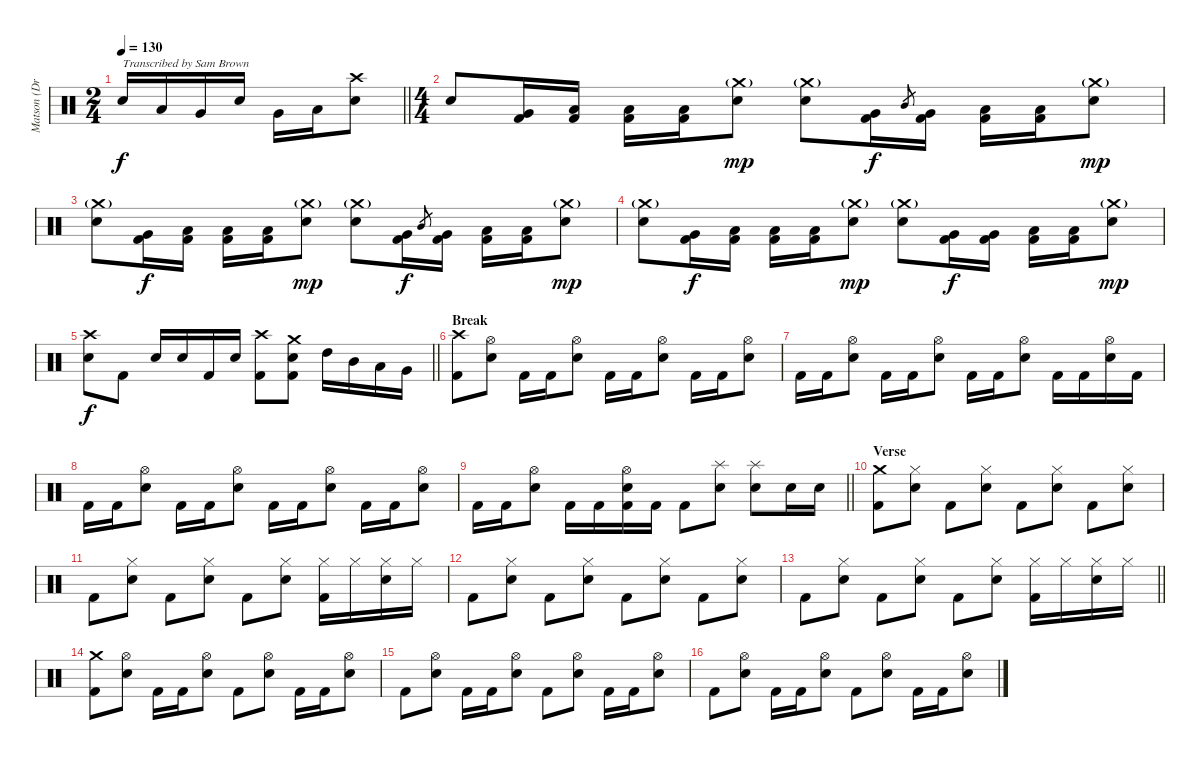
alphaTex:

\track ("Matson (Drums)" "Matson (Dr") {instrument percussion}
\staff {score}
\articulation defaults
\ts (2 4)
\tempo 130
\clef neutral
\barLineRight lightlight
\ks c "Snare (hit) 2".16{txt "Transcribed by Sam Brown" dy f} "Low Tom (hit)".16 "Very Low Tom (hit)".16 "Snare (hit) 2".16 "Very Low Tom (hit)".16 "Low Floor Tom (hit)".16
("Snare (hit) 2" "Crash high (hit)").8 |
\ts (4 4)
\section ("" "")
"Snare (hit) 2".8 ("Kick (hit) 2" "Very Low Tom (hit)").16 ("Kick (hit) 2" "Low Tom (hit)").16 ("Kick (hit) 2" "Low Floor Tom (hit)").16 ("Kick (hit) 2" "Low Floor Tom (hit)").16 ("Snare (hit) 2" "Crash medium (hit)"{g}).8{dy mp} ("Snare (hit) 2" "Crash medium (hit)"{g}).8 ("Kick (hit) 2" "Very Low Tom (hit)").16{dy f} "Mid Tom (hit)".8{gr} ("Kick (hit) 2" "Very Low Tom (hit)").16 ("Kick (hit) 2" "Low Floor Tom (hit)").16 ("Kick (hit) 2" "Low Floor Tom (hit)").16 ("Snare (hit) 2" "Crash medium (hit)"{g}).8{dy mp} |
("Snare (hit) 2" "Crash medium (hit)"{g}).8 ("Kick (hit) 2" "Very Low Tom (hit)").16{dy f} ("Kick (hit) 2" "Low Tom (hit)").16 ("Kick (hit) 2" "Low Floor Tom (hit)").16 ("Kick (hit) 2" "Low Floor Tom (hit)").16 ("Snare (hit) 2" "Crash medium (hit)"{g}).8{dy mp} ("Snare (hit) 2" "Crash medium (hit)"{g}).8 ("Kick (hit) 2" "Very Low Tom (hit)").16{dy f} "Mid Tom (hit)".8{gr} ("Kick (hit) 2" "Very Low Tom (hit)").16 ("Kick (hit) 2" "Low Floor Tom (hit)").16 ("Kick (hit) 2" "Low Floor Tom (hit)").16 ("Snare (hit) 2" "Crash medium (hit)"{g}).8{dy mp} |
("Snare (hit) 2" "Crash medium (hit)"{g}).8 ("Kick (hit) 2" "Very Low Tom (hit)").16{dy f} ("Kick (hit) 2" "Low Tom (hit)").16 ("Kick (hit) 2" "Low Floor Tom (hit)").16 ("Kick (hit) 2" "Low Floor Tom (hit)").16 ("Snare (hit) 2" "Crash medium (hit)"{g}).8{dy mp} ("Snare (hit) 2" "Crash medium (hit)"{g}).8 ("Kick (hit) 2" "Very Low Tom (hit)").16{dy f} ("Kick (hit) 2" "Very Low Tom (hit)").16 ("Kick (hit) 2" "Low Floor Tom (hit)").16 ("Kick (hit) 2" "Low Floor Tom (hit)").16 ("Snare (hit) 2" "Crash medium (hit)"{g}).8{dy mp} |
\barLineRight lightlight
("Snare (hit) 2" "Crash high (hit)").8{dy f} "Kick (hit) 2".8 "Snare (hit) 2".16 "Snare (hit) 2".16 "Kick (hit) 2".16 "Snare (hit) 2".16 ("Kick (hit) 2" "Crash high (hit)").8 ("Kick (hit) 2" "Snare (hit) 2" "Crash medium (hit)").8 "High Tom (hit)".16 "Mid Tom (hit)".16 "Low Tom (hit)".16 "Very Low Tom (hit)".16 |
\section ("" "Break")
("Kick (hit) 2" "Crash high (hit)").8 ("Snare (hit) 2" "Hi-Hat (open)").8 "Kick (hit) 2".16 "Kick (hit) 2".16 ("Snare (hit) 2" "Hi-Hat (open)").8 "Kick (hit) 2".16 "Kick (hit) 2".16 ("Snare (hit) 2" "Hi-Hat (open)").8 "Kick (hit) 2".16 "Kick (hit) 2".16 ("Snare (hit) 2" "Hi-Hat (open)").8 |
"Kick (hit) 2".16 "Kick (hit) 2".16 ("Snare (hit) 2" "Hi-Hat (open)").8 "Kick (hit) 2".16 "Kick (hit) 2".16 ("Snare (hit) 2" "Hi-Hat (open)").8 "Kick (hit) 2".16 "Kick (hit) 2".16 ("Snare (hit) 2" "Hi-Hat (open)").8 "Kick (hit) 2".16 "Kick (hit) 2".16 ("Snare (hit) 2" "Hi-Hat (open)").16 "Kick (hit) 2".16 |
"Kick (hit) 2".16 "Kick (hit) 2".16 ("Snare (hit) 2" "Hi-Hat (open)").8 "Kick (hit) 2".16 "Kick (hit) 2".16 ("Snare (hit) 2" "Hi-Hat (open)").8 "Kick (hit) 2".16 "Kick (hit) 2".16 ("Snare (hit) 2" "Hi-Hat (open)").8 "Kick (hit) 2".16 "Kick (hit) 2".16 ("Snare (hit) 2" "Hi-Hat (open)").8 |
\barLineRight lightlight "Kick (hit) 2".16 "Kick (hit) 2".16
("Snare (hit) 2" "Hi-Hat (open)").8 "Kick (hit) 2".16 "Kick (hit) 2".16 ("Kick (hit) 2" "Snare (hit) 2" "Hi-Hat (open)").16 "Kick (hit) 2".16 "Kick (hit) 2".8 ("Snare (hit) 2" "Splash (hit)").8 ("Snare (hit) 2" "Splash (hit)").8 "Snare (hit) 2".16 "Snare (hit) 2".16 |
\section ("" "Verse")
("Kick (hit) 2" "Crash medium (hit)").8 ("Snare (hit) 2" "Hi-Hat (closed)").8 "Kick (hit) 2".8 ("Snare (hit) 2" "Hi-Hat (closed)").8 "Kick (hit) 2".8 ("Snare (hit) 2" "Hi-Hat (closed)").8 "Kick (hit) 2".8 ("Snare (hit) 2" "Hi-Hat (closed)").8 |
"Kick (hit) 2".8 ("Snare (hit) 2" "Hi-Hat (closed)").8 "Kick (hit) 2".8 ("Snare (hit) 2" "Hi-Hat (closed)").8 "Kick (hit) 2".8 ("Snare (hit) 2" "Hi-Hat (closed)").8 ("Kick (hit) 2" "Hi-Hat (closed)").16 "Hi-Hat (closed)".16 ("Snare (hit) 2" "Hi-Hat (closed)").16 "Hi-Hat (closed)".16 |
"Kick (hit) 2".8 ("Snare (hit) 2" "Hi-Hat (closed)").8 "Kick (hit) 2".8 ("Snare (hit) 2" "Hi-Hat (closed)").8 "Kick (hit) 2".8 ("Snare (hit) 2" "Hi-Hat (closed)").8 "Kick (hit) 2".8 ("Snare (hit) 2" "Hi-Hat (closed)").8 |
\barLineRight lightlight "Kick (hit) 2".8
("Snare (hit) 2" "Hi-Hat (closed)").8 "Kick (hit) 2".8 ("Snare (hit) 2" "Hi-Hat (closed)").8 "Kick (hit) 2".8 ("Snare (hit) 2" "Hi-Hat (closed)").8 ("Kick (hit) 2" "Hi-Hat (closed)").16 "Hi-Hat (closed)".16 ("Snare (hit) 2" "Hi-Hat (closed)").16 "Hi-Hat (closed)".16 |
\section ("" "")
("Kick (hit) 2" "Crash medium (hit)").8 ("Snare (hit) 2" "Hi-Hat (open)").8 "Kick (hit) 2".16 "Kick (hit) 2".16 ("Snare (hit) 2" "Hi-Hat (open)").8 "Kick (hit) 2".8 ("Snare (hit) 2" "Hi-Hat (open)").8 "Kick (hit) 2".16 "Kick (hit) 2".16 ("Snare (hit) 2" "Hi-Hat (open)").8 |
"Kick (hit) 2".8 ("Snare (hit) 2" "Hi-Hat (open)").8 "Kick (hit) 2".16 "Kick (hit) 2".16 ("Snare (hit) 2" "Hi-Hat (open)").8 "Kick (hit) 2".8 ("Snare (hit) 2" "Hi-Hat (open)").8 "Kick (hit) 2".16 "Kick (hit) 2".16 ("Snare (hit) 2" "Hi-Hat (open)").8 |
"Kick (hit) 2".8 ("Snare (hit) 2" "Hi-Hat (open)").8 "Kick (hit) 2".16 "Kick (hit) 2".16 ("Snare (hit) 2" "Hi-Hat (open)").8 "Kick (hit) 2".8 ("Snare (hit) 2" "Hi-Hat (open)").8 "Kick (hit) 2".16 "Kick (hit) 2".16 ("Snare (hit) 2" "Hi-Hat (open)").8
